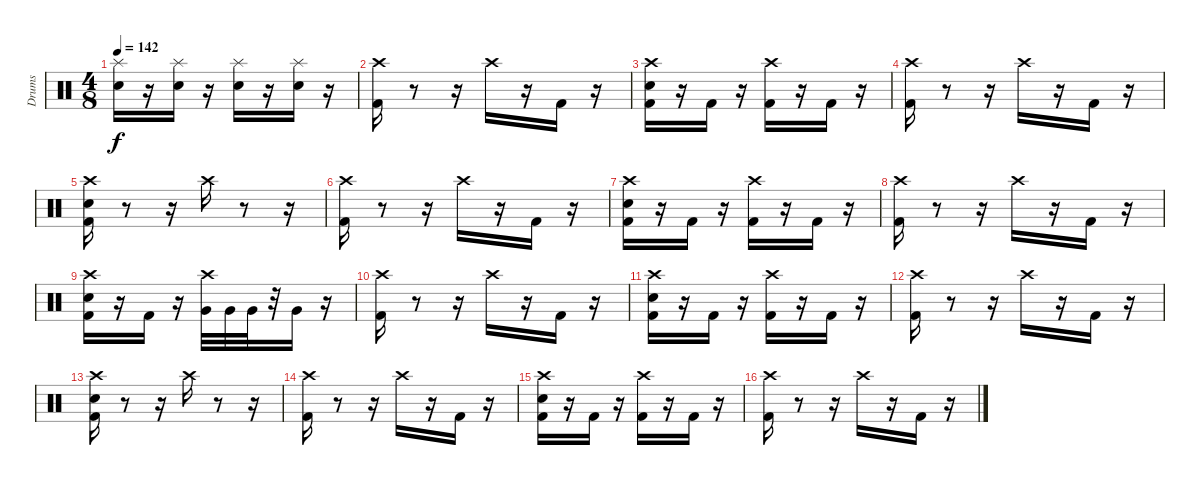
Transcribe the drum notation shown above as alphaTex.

\track ("Drums" "Drums") {instrument percussion}
\staff {score}
\articulation defaults
\ts (4 8)
\tempo 142
\clef neutral
\ks c
("Electric Snare (hit)" "Splash (hit)").16{dy f} r.16 ("Electric Snare (hit)" "Splash (hit)").16 r.16 ("Electric Snare (hit)" "Splash (hit)").16 r.16 ("Electric Snare (hit)" "Splash (hit)").16 r.16 |
("Kick (hit) 2" "Crash high (hit)").16 r.8 r.16 "Crash high (hit)".16 r.16 "Kick (hit) 2".16 r.16 |
("Electric Snare (hit)" "Kick (hit) 2" "Crash high (hit)").16 r.16 "Kick (hit) 2".16 r.16 ("Crash high (hit)" "Kick (hit) 2").16 r.16 "Kick (hit) 2".16 r.16 |
("Kick (hit) 2" "Crash high (hit)").16 r.8 r.16 "Crash high (hit)".16 r.16 "Kick (hit) 2".16 r.16 |
("Kick (hit) 2" "Crash high (hit)" "Electric Snare (hit)").16 r.8 r.16 "Crash high (hit)".16 r.8 r.16 |
("Kick (hit) 2" "Crash high (hit)").16 r.8 r.16 "Crash high (hit)".16 r.16 "Kick (hit) 2".16 r.16 |
("Electric Snare (hit)" "Kick (hit) 2" "Crash high (hit)").16 r.16 "Kick (hit) 2".16 r.16 ("Crash high (hit)" "Kick (hit) 2").16 r.16 "Kick (hit) 2".16 r.16 |
("Kick (hit) 2" "Crash high (hit)").16 r.8 r.16 "Crash high (hit)".16 r.16 "Kick (hit) 2".16 r.16 |
("Kick (hit) 2" "Crash high (hit)" "Electric Snare (hit)").16 r.16 "Kick (hit) 2".16 r.16 ("Crash high (hit)" "Very Low Tom (hit)").32 "Very Low Tom (hit)".32 "Very Low Tom (hit)".32 r.32 "Very Low Tom (hit)".16 r.16 |
("Kick (hit) 2" "Crash high (hit)").16 r.8 r.16 "Crash high (hit)".16 r.16 "Kick (hit) 2".16 r.16 |
("Electric Snare (hit)" "Kick (hit) 2" "Crash high (hit)").16 r.16 "Kick (hit) 2".16 r.16 ("Crash high (hit)" "Kick (hit) 2").16 r.16 "Kick (hit) 2".16 r.16 |
("Kick (hit) 2" "Crash high (hit)").16 r.8 r.16 "Crash high (hit)".16 r.16 "Kick (hit) 2".16 r.16 |
("Kick (hit) 2" "Crash high (hit)" "Electric Snare (hit)").16 r.8 r.16 "Crash high (hit)".16 r.8 r.16 |
("Kick (hit) 2" "Crash high (hit)").16 r.8 r.16 "Crash high (hit)".16 r.16 "Kick (hit) 2".16 r.16 |
("Electric Snare (hit)" "Kick (hit) 2" "Crash high (hit)").16 r.16 "Kick (hit) 2".16 r.16 ("Crash high (hit)" "Kick (hit) 2").16 r.16 "Kick (hit) 2".16 r.16 |
("Kick (hit) 2" "Crash high (hit)").16 r.8 r.16 "Crash high (hit)".16 r.16 "Kick (hit) 2".16 r.16
